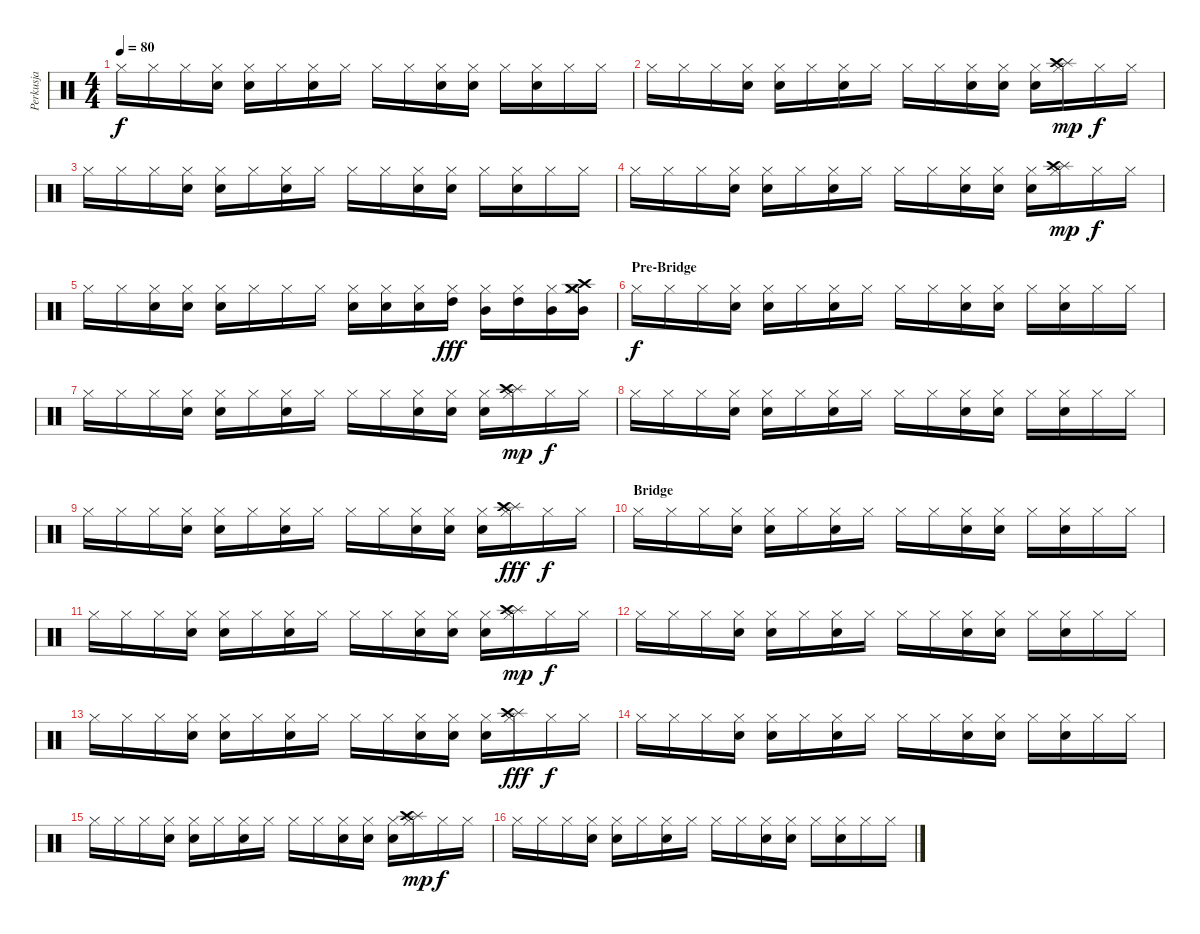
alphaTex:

\track ("Perkusja" "Perkusja") {instrument percussion}
\staff {score}
\articulation defaults
\ts (4 4)
\tempo 80
\clef neutral
\ks c "Hi-Hat (closed)".16{dy f} "Hi-Hat (closed)".16 "Hi-Hat (closed)".16
("Hi-Hat (closed)" "Electric Snare (hit)").16 ("Hi-Hat (closed)" "Snare (hit) 2").16 "Hi-Hat (closed)".16 ("Hi-Hat (closed)" "Electric Snare (hit)").16 "Hi-Hat (closed)".16 "Hi-Hat (closed)".16 "Hi-Hat (closed)".16 ("Hi-Hat (closed)" "Electric Snare (hit)").16 ("Hi-Hat (closed)" "Snare (hit) 2").16 "Hi-Hat (closed)".16 ("Hi-Hat (closed)" "Electric Snare (hit)").16 "Hi-Hat (closed)".16 "Hi-Hat (closed)".16 |
"Hi-Hat (closed)".16 "Hi-Hat (closed)".16 "Hi-Hat (closed)".16 ("Hi-Hat (closed)" "Electric Snare (hit)").16 ("Hi-Hat (closed)" "Snare (hit) 2").16 "Hi-Hat (closed)".16 ("Hi-Hat (closed)" "Electric Snare (hit)").16 "Hi-Hat (closed)".16 "Hi-Hat (closed)".16 "Hi-Hat (closed)".16 ("Hi-Hat (closed)" "Electric Snare (hit)").16 ("Hi-Hat (closed)" "Snare (hit) 2").16 ("Hi-Hat (closed)" "Electric Snare (hit)").16 ("Hi-Hat (closed)" "Splash (hit)" "Crash high (hit)").16{dy mp} "Hi-Hat (closed)".16{dy f} "Hi-Hat (closed)".16 |
"Hi-Hat (closed)".16 "Hi-Hat (closed)".16 "Hi-Hat (closed)".16 ("Hi-Hat (closed)" "Electric Snare (hit)").16 ("Hi-Hat (closed)" "Snare (hit) 2").16 "Hi-Hat (closed)".16 ("Hi-Hat (closed)" "Electric Snare (hit)").16 "Hi-Hat (closed)".16 "Hi-Hat (closed)".16 "Hi-Hat (closed)".16 ("Hi-Hat (closed)" "Electric Snare (hit)").16 ("Hi-Hat (closed)" "Snare (hit) 2").16 "Hi-Hat (closed)".16 ("Hi-Hat (closed)" "Electric Snare (hit)").16 "Hi-Hat (closed)".16 "Hi-Hat (closed)".16 |
"Hi-Hat (closed)".16 "Hi-Hat (closed)".16 "Hi-Hat (closed)".16 ("Hi-Hat (closed)" "Electric Snare (hit)").16 ("Hi-Hat (closed)" "Snare (hit) 2").16 "Hi-Hat (closed)".16 ("Hi-Hat (closed)" "Electric Snare (hit)").16 "Hi-Hat (closed)".16 "Hi-Hat (closed)".16 "Hi-Hat (closed)".16 ("Hi-Hat (closed)" "Electric Snare (hit)").16 ("Hi-Hat (closed)" "Snare (hit) 2").16 ("Hi-Hat (closed)" "Electric Snare (hit)").16 ("Hi-Hat (closed)" "Splash (hit)" "Crash high (hit)").16{dy mp} "Hi-Hat (closed)".16{dy f} "Hi-Hat (closed)".16 |
"Hi-Hat (closed)".16 "Hi-Hat (closed)".16 ("Hi-Hat (closed)" "Electric Snare (hit)").16 ("Hi-Hat (closed)" "Snare (hit) 2").16 ("Hi-Hat (closed)" "Electric Snare (hit)").16 "Hi-Hat (closed)".16 "Hi-Hat (closed)".16 "Hi-Hat (closed)".16 ("Hi-Hat (closed)" "Electric Snare (hit)").16 ("Hi-Hat (closed)" "Snare (hit) 2").16 ("Hi-Hat (closed)" "Electric Snare (hit)").16 ("Hi-Hat (closed)" "High Tom (hit)").16{dy fff} ("Hi-Hat (closed)" "Mid Tom (hit)").16 ("Hi-Hat (closed)" "High Tom (hit)").16 ("Hi-Hat (closed)" "Mid Tom (hit)").16 ("Hi-Hat (closed)" "Crash medium (hit)" "Crash high (hit)" "Mid Tom (hit)").16 |
\section ("" "Pre-Bridge")
"Hi-Hat (closed)".16{dy f} "Hi-Hat (closed)".16 "Hi-Hat (closed)".16 ("Hi-Hat (closed)" "Electric Snare (hit)").16 ("Hi-Hat (closed)" "Snare (hit) 2").16 "Hi-Hat (closed)".16 ("Hi-Hat (closed)" "Electric Snare (hit)").16 "Hi-Hat (closed)".16 "Hi-Hat (closed)".16 "Hi-Hat (closed)".16 ("Hi-Hat (closed)" "Electric Snare (hit)").16 ("Hi-Hat (closed)" "Snare (hit) 2").16 "Hi-Hat (closed)".16 ("Hi-Hat (closed)" "Electric Snare (hit)").16 "Hi-Hat (closed)".16 "Hi-Hat (closed)".16 |
"Hi-Hat (closed)".16 "Hi-Hat (closed)".16 "Hi-Hat (closed)".16 ("Hi-Hat (closed)" "Electric Snare (hit)").16 ("Hi-Hat (closed)" "Snare (hit) 2").16 "Hi-Hat (closed)".16 ("Hi-Hat (closed)" "Electric Snare (hit)").16 "Hi-Hat (closed)".16 "Hi-Hat (closed)".16 "Hi-Hat (closed)".16 ("Hi-Hat (closed)" "Electric Snare (hit)").16 ("Hi-Hat (closed)" "Snare (hit) 2").16 ("Hi-Hat (closed)" "Electric Snare (hit)").16 ("Hi-Hat (closed)" "Splash (hit)" "Crash high (hit)").16{dy mp} "Hi-Hat (closed)".16{dy f} "Hi-Hat (closed)".16 |
"Hi-Hat (closed)".16 "Hi-Hat (closed)".16 "Hi-Hat (closed)".16 ("Hi-Hat (closed)" "Electric Snare (hit)").16 ("Hi-Hat (closed)" "Snare (hit) 2").16 "Hi-Hat (closed)".16 ("Hi-Hat (closed)" "Electric Snare (hit)").16 "Hi-Hat (closed)".16 "Hi-Hat (closed)".16 "Hi-Hat (closed)".16 ("Hi-Hat (closed)" "Electric Snare (hit)").16 ("Hi-Hat (closed)" "Snare (hit) 2").16 "Hi-Hat (closed)".16 ("Hi-Hat (closed)" "Electric Snare (hit)").16 "Hi-Hat (closed)".16 "Hi-Hat (closed)".16 |
"Hi-Hat (closed)".16 "Hi-Hat (closed)".16 "Hi-Hat (closed)".16 ("Hi-Hat (closed)" "Electric Snare (hit)").16 ("Hi-Hat (closed)" "Snare (hit) 2").16 "Hi-Hat (closed)".16 ("Hi-Hat (closed)" "Electric Snare (hit)").16 "Hi-Hat (closed)".16 "Hi-Hat (closed)".16 "Hi-Hat (closed)".16 ("Hi-Hat (closed)" "Electric Snare (hit)").16 ("Hi-Hat (closed)" "Snare (hit) 2").16 ("Hi-Hat (closed)" "Electric Snare (hit)").16 ("Hi-Hat (closed)" "Splash (hit)" "Crash high (hit)").16{dy fff} "Hi-Hat (closed)".16{dy f} "Hi-Hat (closed)".16 |
\section ("" "Bridge")
"Hi-Hat (closed)".16 "Hi-Hat (closed)".16 "Hi-Hat (closed)".16 ("Hi-Hat (closed)" "Electric Snare (hit)").16 ("Hi-Hat (closed)" "Snare (hit) 2").16 "Hi-Hat (closed)".16 ("Hi-Hat (closed)" "Electric Snare (hit)").16 "Hi-Hat (closed)".16 "Hi-Hat (closed)".16 "Hi-Hat (closed)".16 ("Hi-Hat (closed)" "Electric Snare (hit)").16 ("Hi-Hat (closed)" "Snare (hit) 2").16 "Hi-Hat (closed)".16 ("Hi-Hat (closed)" "Electric Snare (hit)").16 "Hi-Hat (closed)".16 "Hi-Hat (closed)".16 |
"Hi-Hat (closed)".16 "Hi-Hat (closed)".16 "Hi-Hat (closed)".16 ("Hi-Hat (closed)" "Electric Snare (hit)").16 ("Hi-Hat (closed)" "Snare (hit) 2").16 "Hi-Hat (closed)".16 ("Hi-Hat (closed)" "Electric Snare (hit)").16 "Hi-Hat (closed)".16 "Hi-Hat (closed)".16 "Hi-Hat (closed)".16 ("Hi-Hat (closed)" "Electric Snare (hit)").16 ("Hi-Hat (closed)" "Snare (hit) 2").16 ("Hi-Hat (closed)" "Electric Snare (hit)").16 ("Hi-Hat (closed)" "Splash (hit)" "Crash high (hit)").16{dy mp} "Hi-Hat (closed)".16{dy f} "Hi-Hat (closed)".16 |
"Hi-Hat (closed)".16 "Hi-Hat (closed)".16 "Hi-Hat (closed)".16 ("Hi-Hat (closed)" "Electric Snare (hit)").16 ("Hi-Hat (closed)" "Snare (hit) 2").16 "Hi-Hat (closed)".16 ("Hi-Hat (closed)" "Electric Snare (hit)").16 "Hi-Hat (closed)".16 "Hi-Hat (closed)".16 "Hi-Hat (closed)".16 ("Hi-Hat (closed)" "Electric Snare (hit)").16 ("Hi-Hat (closed)" "Snare (hit) 2").16 "Hi-Hat (closed)".16 ("Hi-Hat (closed)" "Electric Snare (hit)").16 "Hi-Hat (closed)".16 "Hi-Hat (closed)".16 |
"Hi-Hat (closed)".16 "Hi-Hat (closed)".16 "Hi-Hat (closed)".16 ("Hi-Hat (closed)" "Electric Snare (hit)").16 ("Hi-Hat (closed)" "Snare (hit) 2").16 "Hi-Hat (closed)".16 ("Hi-Hat (closed)" "Electric Snare (hit)").16 "Hi-Hat (closed)".16 "Hi-Hat (closed)".16 "Hi-Hat (closed)".16 ("Hi-Hat (closed)" "Electric Snare (hit)").16 ("Hi-Hat (closed)" "Snare (hit) 2").16 ("Hi-Hat (closed)" "Electric Snare (hit)").16 ("Hi-Hat (closed)" "Splash (hit)" "Crash high (hit)").16{dy fff} "Hi-Hat (closed)".16{dy f} "Hi-Hat (closed)".16 |
"Hi-Hat (closed)".16 "Hi-Hat (closed)".16 "Hi-Hat (closed)".16 ("Hi-Hat (closed)" "Electric Snare (hit)").16 ("Hi-Hat (closed)" "Snare (hit) 2").16 "Hi-Hat (closed)".16 ("Hi-Hat (closed)" "Electric Snare (hit)").16 "Hi-Hat (closed)".16 "Hi-Hat (closed)".16 "Hi-Hat (closed)".16 ("Hi-Hat (closed)" "Electric Snare (hit)").16 ("Hi-Hat (closed)" "Snare (hit) 2").16 "Hi-Hat (closed)".16 ("Hi-Hat (closed)" "Electric Snare (hit)").16 "Hi-Hat (closed)".16 "Hi-Hat (closed)".16 |
"Hi-Hat (closed)".16 "Hi-Hat (closed)".16 "Hi-Hat (closed)".16 ("Hi-Hat (closed)" "Electric Snare (hit)").16 ("Hi-Hat (closed)" "Snare (hit) 2").16 "Hi-Hat (closed)".16 ("Hi-Hat (closed)" "Electric Snare (hit)").16 "Hi-Hat (closed)".16 "Hi-Hat (closed)".16 "Hi-Hat (closed)".16 ("Hi-Hat (closed)" "Electric Snare (hit)").16 ("Hi-Hat (closed)" "Snare (hit) 2").16 ("Hi-Hat (closed)" "Electric Snare (hit)").16 ("Hi-Hat (closed)" "Splash (hit)" "Crash high (hit)").16{dy mp} "Hi-Hat (closed)".16{dy f} "Hi-Hat (closed)".16 |
"Hi-Hat (closed)".16 "Hi-Hat (closed)".16 "Hi-Hat (closed)".16 ("Hi-Hat (closed)" "Electric Snare (hit)").16 ("Hi-Hat (closed)" "Snare (hit) 2").16 "Hi-Hat (closed)".16 ("Hi-Hat (closed)" "Electric Snare (hit)").16 "Hi-Hat (closed)".16 "Hi-Hat (closed)".16 "Hi-Hat (closed)".16 ("Hi-Hat (closed)" "Electric Snare (hit)").16 ("Hi-Hat (closed)" "Snare (hit) 2").16 "Hi-Hat (closed)".16 ("Hi-Hat (closed)" "Electric Snare (hit)").16 "Hi-Hat (closed)".16 "Hi-Hat (closed)".16
